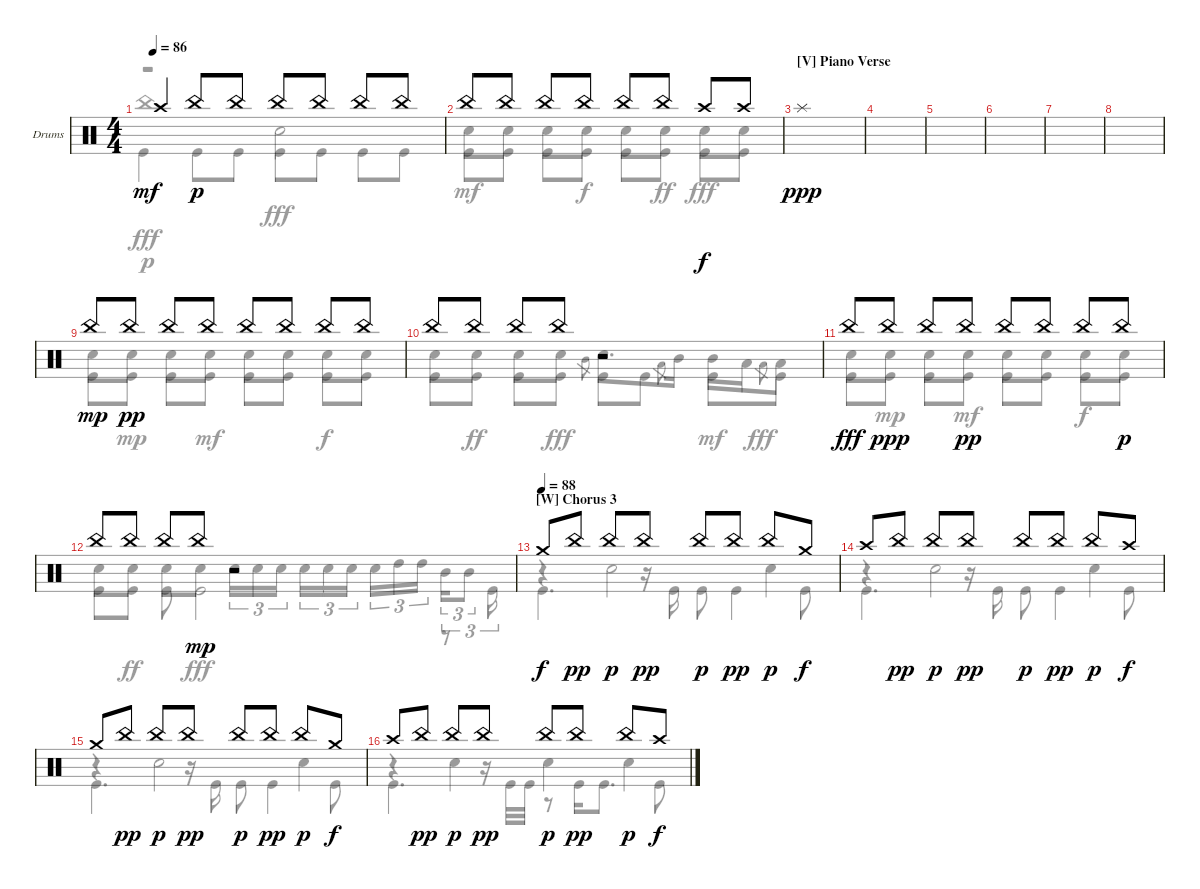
\defaultSystemsLayout 4
\bracketExtendMode groupsimilarinstruments
\firstSystemTrackNameOrientation horizontal
\otherSystemsTrackNameOrientation horizontal
\track ("Drumkit" "Drums") {instrument percussion}
\staff {score}
\articulation defaults
\voice
\ts (4 4)
\tempo 86
\clef neutral
\ks c "Crash high (hit)".4{dy mf} "China (hit)".8{dy p} "China (hit)".8 "China (hit)".8 "China (hit)".8 "China (hit)".8 "China (hit)".8
|
"China (hit)".8 "China (hit)".8 "China (hit)".8 "China (hit)".8 "China (hit)".8 "China (hit)".8 "Crash high (hit)".8{dy f} "Crash high (hit)".8 |
\section ("V" "Piano Verse")
"Splash (hit)".1{dy ppp} |
|
|
|
|
|
"China (hit)".8{dy mp} "China (hit)".8{dy pp} "China (hit)".8 "China (hit)".8 "China (hit)".8 "China (hit)".8 "China (hit)".8 "China (hit)".8 |
"China (hit)".8 "China (hit)".8 "China (hit)".8 "China (hit)".8 r.2 |
"China (hit)".8{dy fff} "China (hit)".8{dy ppp} "China (hit)".8 "China (hit)".8{dy pp} "China (hit)".8 "China (hit)".8 "China (hit)".8 "China (hit)".8{dy p} |
"China (hit)".8 "China (hit)".8 "China (hit)".8 "China (hit)".8{dy mp} r.2 |
\section ("W" "Chorus 3")
\tempo (88)
"Crash medium (hit)".8{dy f} "China (hit)".8{dy pp} "China (hit)".8{dy p} "China (hit)".8{dy pp} "China (hit)".8{dy p} "China (hit)".8{dy pp} "China (hit)".8{dy p} "Crash medium (hit)".8{dy f} |
"Crash high (hit)".8 "China (hit)".8{dy pp} "China (hit)".8{dy p} "China (hit)".8{dy pp} "China (hit)".8{dy p} "China (hit)".8{dy pp} "China (hit)".8{dy p} "Crash high (hit)".8{dy f} |
"Crash medium (hit)".8 "China (hit)".8{dy pp} "China (hit)".8{dy p} "China (hit)".8{dy pp} "China (hit)".8{dy p} "China (hit)".8{dy pp} "China (hit)".8{dy p} "Crash medium (hit)".8{dy f} |
"Crash high (hit)".8 "China (hit)".8{dy pp} "China (hit)".8{dy p} "China (hit)".8{dy pp} "China (hit)".8{dy p} "China (hit)".8{dy pp} "China (hit)".8{dy p} "Crash high (hit)".8{dy f}
\voice
\clef neutral
\ottava regular
\simile none
\ks c
r.2{dy fff} "Snare (hit) 2".2 |
"Snare (hit) 2".8{dy mf} "Snare (hit) 2".8 "Snare (hit) 2".8 "Snare (hit) 2".8{dy f} "Snare (hit) 2".8 "Snare (hit) 2".8{dy ff} "Snare (hit) 2".8{dy fff} "Snare (hit) 2".8 |
|
|
|
|
|
|
"Snare (hit) 2".8 "Snare (hit) 2".8{dy mp} "Snare (hit) 2".8 "Snare (hit) 2".8{dy mf} "Snare (hit) 2".8 "Snare (hit) 2".8 "Snare (hit) 2".8{dy f} "Snare (hit) 2".8 |
"Snare (hit) 2".8 "Snare (hit) 2".8{dy ff} "Snare (hit) 2".8 "Snare (hit) 2".8{dy fff} "Mid Tom (hit)".8{gr} "Snare (hit) 2".8{d} "Low Tom (hit)".8{gr} "Mid Tom (hit)".16 "Mid Tom (hit)".16{dy mf} "Low Tom (hit)".16 "Low Tom (hit)".8{gr dy fff} "Low Tom (hit)".8 |
"Snare (hit) 2".8 "Snare (hit) 2".8{dy mp} "Snare (hit) 2".8 "Snare (hit) 2".8{dy mf} "Snare (hit) 2".8 "Snare (hit) 2".8 "Snare (hit) 2".8{dy f} "Snare (hit) 2".8 |
"Snare (hit) 2".8 "Snare (hit) 2".8{dy ff} "Snare (hit) 2".8 "Snare (hit) 2".8{dy fff} "Snare (hit) 2".16{tu (3 2)} "Snare (hit) 2".16{tu (3 2)} "Snare (hit) 2".16{tu (3 2)} "Snare (hit) 2".16{tu (3 2)} "Snare (hit) 2".16{tu (3 2)} "Snare (hit) 2".16{tu (3 2)} "Snare (hit) 2".16{tu (3 2)} "High Tom (hit)".16{tu (3 2)} "High Tom (hit)".16{tu (3 2)} "Mid Tom (hit)".16{tu (3 2)} "Mid Tom (hit)".8{tu (3 2)} |
r.4 "Snare (hit) 2".2 "Snare (hit) 2".4 |
r.4 "Snare (hit) 2".2 "Snare (hit) 2".4 |
r.4 "Snare (hit) 2".2 "Snare (hit) 2".4 |
r.4 "Snare (hit) 2".4 "Snare (hit) 2".4 "Snare (hit) 2".4
\voice
\clef neutral
\ottava regular
\simile none
\ks c "Kick (hit)".4{dy fff} "Kick (hit)".8 "Kick (hit)".8 "Kick (hit)".8 "Kick (hit)".8 "Kick (hit)".8 "Kick (hit)".8
|
"Kick (hit)".8 "Kick (hit)".8 "Kick (hit)".8 "Kick (hit)".8 "Kick (hit)".8 "Kick (hit)".8 "Kick (hit)".8 "Kick (hit)".8 |
|
|
|
|
|
|
"Kick (hit)".8 "Kick (hit)".8 "Kick (hit)".8 "Kick (hit)".8 "Kick (hit)".8 "Kick (hit)".8 "Kick (hit)".8 "Kick (hit)".8 |
"Kick (hit)".8 "Kick (hit)".8 "Kick (hit)".8 "Kick (hit)".8 "Kick (hit)".8 "Kick (hit)".8 "Kick (hit)".8 "Kick (hit)".8 |
"Kick (hit)".8 "Kick (hit)".8 "Kick (hit)".8 "Kick (hit)".8 "Kick (hit)".8 "Kick (hit)".8 "Kick (hit)".8 "Kick (hit)".8 |
"Kick (hit)".8 "Kick (hit)".8 "Kick (hit)".8 "Kick (hit)".2 r.8{tu (3 2)} "Kick (hit)".16{tu (3 2)} |
"Kick (hit)".4{d} r.16 "Kick (hit)".16 "Kick (hit)".8 "Kick (hit)".4 "Kick (hit)".8 |
"Kick (hit)".4{d} r.16 "Kick (hit)".16 "Kick (hit)".8 "Kick (hit)".4 "Kick (hit)".8 |
"Kick (hit)".4{d} r.16 "Kick (hit)".16 "Kick (hit)".8 "Kick (hit)".4 "Kick (hit)".8 |
"Kick (hit)".4{d} r.16 "Kick (hit)".32 "Kick (hit)".32 r.8 "Kick (hit)".16 "Kick (hit)".8{d} "Kick (hit)".8
\voice
\clef neutral
\ottava regular
\simile none
\ks c "China (hit)".1{dy p}
|
|
|
|
|
|
|
|
|
|
|
|
|
|
|
